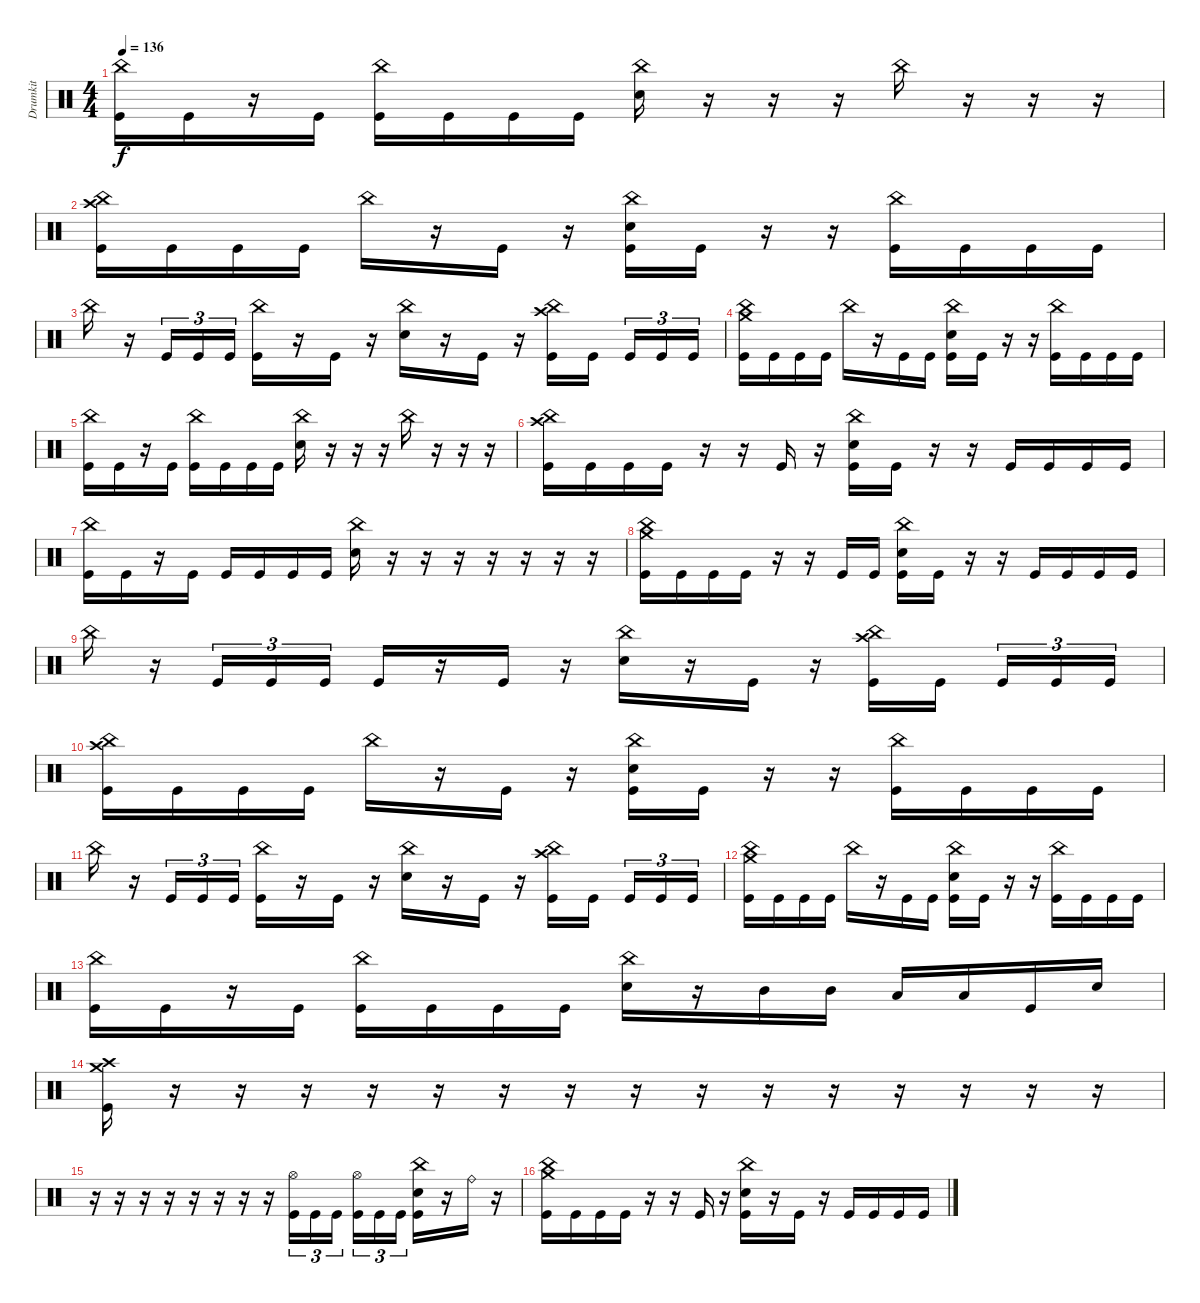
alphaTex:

\track ("Drumkit" "Drumkit") {instrument percussion}
\staff {score}
\articulation defaults
\ts (4 4)
\tempo 136
\clef neutral
\ks c
("China (hit)" "Kick (hit)").16{dy f} "Kick (hit)".16 r.16 "Kick (hit)".16 ("China (hit)" "Kick (hit)").16 "Kick (hit)".16 "Kick (hit)".16 "Kick (hit)".16 ("China (hit)" "Snare (hit) 2").16 r.16 r.16 r.16 "China (hit)".16 r.16 r.16 r.16 |
("China (hit)" "Crash high (hit)" "Kick (hit)").16 "Kick (hit)".16 "Kick (hit)".16 "Kick (hit)".16 "China (hit)".16 r.16 "Kick (hit)".16 r.16 ("China (hit)" "Snare (hit) 2" "Kick (hit)").16 "Kick (hit)".16 r.16 r.16 ("China (hit)" "Kick (hit)").16 "Kick (hit)".16 "Kick (hit)".16 "Kick (hit)".16 |
"China (hit)".16 r.16 "Kick (hit)".16{tu (3 2)} "Kick (hit)".16{tu (3 2)} "Kick (hit)".16{tu (3 2)} ("China (hit)" "Kick (hit)").16 r.16 "Kick (hit)".16 r.16 ("China (hit)" "Snare (hit) 2").16 r.16 "Kick (hit)".16 r.16 ("China (hit)" "Crash high (hit)" "Kick (hit)").16 "Kick (hit)".16 "Kick (hit)".16{tu (3 2)} "Kick (hit)".16{tu (3 2)} "Kick (hit)".16{tu (3 2)} |
("China (hit)" "Crash medium (hit)" "Kick (hit)").16 "Kick (hit)".16 "Kick (hit)".16 "Kick (hit)".16 "China (hit)".16 r.16 "Kick (hit)".16 "Kick (hit)".16 ("China (hit)" "Snare (hit) 2" "Kick (hit)").16 "Kick (hit)".16 r.16 r.16 ("China (hit)" "Kick (hit)").16 "Kick (hit)".16 "Kick (hit)".16 "Kick (hit)".16 |
("China (hit)" "Kick (hit)").16 "Kick (hit)".16 r.16 "Kick (hit)".16 ("China (hit)" "Kick (hit)").16 "Kick (hit)".16 "Kick (hit)".16 "Kick (hit)".16 ("China (hit)" "Snare (hit) 2").16 r.16 r.16 r.16 "China (hit)".16 r.16 r.16 r.16 |
("China (hit)" "Crash high (hit)" "Kick (hit)").16 "Kick (hit)".16 "Kick (hit)".16 "Kick (hit)".16 r.16 r.16 "Kick (hit)".16 r.16 ("China (hit)" "Snare (hit) 2" "Kick (hit)").16 "Kick (hit)".16 r.16 r.16 "Kick (hit)".16 "Kick (hit)".16 "Kick (hit)".16 "Kick (hit)".16 |
("China (hit)" "Kick (hit)").16 "Kick (hit)".16 r.16 "Kick (hit)".16 "Kick (hit)".16 "Kick (hit)".16 "Kick (hit)".16 "Kick (hit)".16 ("China (hit)" "Snare (hit) 2").16 r.16 r.16 r.16 r.16 r.16 r.16 r.16 |
("China (hit)" "Crash medium (hit)" "Kick (hit)").16 "Kick (hit)".16 "Kick (hit)".16 "Kick (hit)".16 r.16 r.16 "Kick (hit)".16 "Kick (hit)".16 ("China (hit)" "Snare (hit) 2" "Kick (hit)").16 "Kick (hit)".16 r.16 r.16 "Kick (hit)".16 "Kick (hit)".16 "Kick (hit)".16 "Kick (hit)".16 |
"China (hit)".16 r.16 "Kick (hit)".16{tu (3 2)} "Kick (hit)".16{tu (3 2)} "Kick (hit)".16{tu (3 2)} "Kick (hit)".16 r.16 "Kick (hit)".16 r.16 ("China (hit)" "Snare (hit) 2").16 r.16 "Kick (hit)".16 r.16 ("China (hit)" "Crash high (hit)" "Kick (hit)").16 "Kick (hit)".16 "Kick (hit)".16{tu (3 2)} "Kick (hit)".16{tu (3 2)} "Kick (hit)".16{tu (3 2)} |
("China (hit)" "Crash high (hit)" "Kick (hit)").16 "Kick (hit)".16 "Kick (hit)".16 "Kick (hit)".16 "China (hit)".16 r.16 "Kick (hit)".16 r.16 ("China (hit)" "Snare (hit) 2" "Kick (hit)").16 "Kick (hit)".16 r.16 r.16 ("China (hit)" "Kick (hit)").16 "Kick (hit)".16 "Kick (hit)".16 "Kick (hit)".16 |
"China (hit)".16 r.16 "Kick (hit)".16{tu (3 2)} "Kick (hit)".16{tu (3 2)} "Kick (hit)".16{tu (3 2)} ("China (hit)" "Kick (hit)").16 r.16 "Kick (hit)".16 r.16 ("China (hit)" "Snare (hit) 2").16 r.16 "Kick (hit)".16 r.16 ("China (hit)" "Crash high (hit)" "Kick (hit)").16 "Kick (hit)".16 "Kick (hit)".16{tu (3 2)} "Kick (hit)".16{tu (3 2)} "Kick (hit)".16{tu (3 2)} |
("China (hit)" "Crash medium (hit)" "Kick (hit)").16 "Kick (hit)".16 "Kick (hit)".16 "Kick (hit)".16 "China (hit)".16 r.16 "Kick (hit)".16 "Kick (hit)".16 ("China (hit)" "Snare (hit) 2" "Kick (hit)").16 "Kick (hit)".16 r.16 r.16 ("China (hit)" "Kick (hit)").16 "Kick (hit)".16 "Kick (hit)".16 "Kick (hit)".16 |
("China (hit)" "Kick (hit)").16 "Kick (hit)".16 r.16 "Kick (hit)".16 ("China (hit)" "Kick (hit)").16 "Kick (hit)".16 "Kick (hit)".16 "Kick (hit)".16 ("China (hit)" "Snare (hit) 2").16 r.16 "Mid Tom (hit)".16 "Mid Tom (hit)".16 "Low Tom (hit)".16 "Low Tom (hit)".16 "Kick (hit)".16 "Snare (hit) 2".16 |
("Crash medium (hit)" "Crash high (hit)" "Kick (hit)").16 r.16 r.16 r.16 r.16 r.16 r.16 r.16 r.16 r.16 r.16 r.16 r.16 r.16 r.16 r.16 |
r.16 r.16 r.16 r.16 r.16 r.16 r.16 r.16 ("Hi-Hat (open)" "Kick (hit)").16{tu (3 2)} "Kick (hit)".16{tu (3 2)} "Kick (hit)".16{tu (3 2)} ("Hi-Hat (open)" "Kick (hit)").16{tu (3 2)} "Kick (hit)".16{tu (3 2)} "Kick (hit)".16{tu (3 2)} ("China (hit)" "Snare (hit) 2" "Kick (hit)").16 r.16 "Ride (bell)".16 r.16 |
("China (hit)" "Crash medium (hit)" "Kick (hit)").16 "Kick (hit)".16 "Kick (hit)".16 "Kick (hit)".16 r.16 r.16 "Kick (hit)".16 r.16 ("China (hit)" "Snare (hit) 2" "Kick (hit)").16 r.16 "Kick (hit)".16 r.16 "Kick (hit)".16 "Kick (hit)".16 "Kick (hit)".16 "Kick (hit)".16
